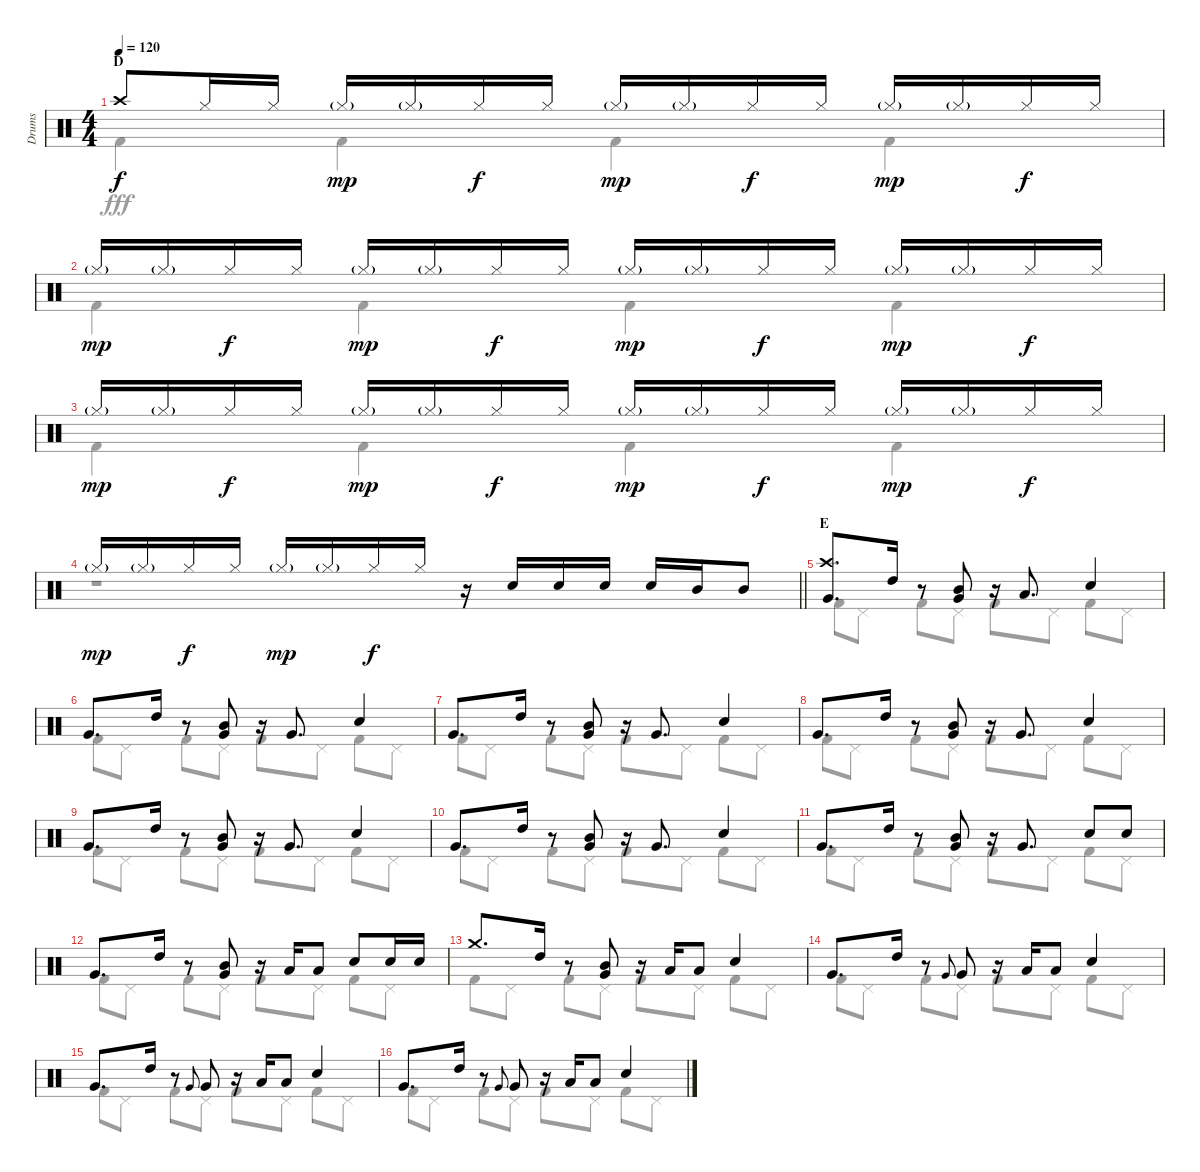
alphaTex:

\track ("Drums" "Drums") {instrument percussion}
\staff {score}
\articulation defaults
\voice
\ts (4 4)
\section ("" "D")
\tempo 120
\clef neutral
\ks c "Crash high (hit)".8{dy f} "Hi-Hat (closed)".16 "Hi-Hat (closed)".16 "Hi-Hat (closed)"{g}.16{dy mp} "Hi-Hat (closed)"{g}.16 "Hi-Hat (closed)".16{dy f} "Hi-Hat (closed)".16 "Hi-Hat (closed)"{g}.16{dy mp} "Hi-Hat (closed)"{g}.16 "Hi-Hat (closed)".16{dy f} "Hi-Hat (closed)".16 "Hi-Hat (closed)"{g}.16{dy mp} "Hi-Hat (closed)"{g}.16 "Hi-Hat (closed)".16{dy f} "Hi-Hat (closed)".16
|
"Hi-Hat (closed)"{g}.16{dy mp} "Hi-Hat (closed)"{g}.16 "Hi-Hat (closed)".16{dy f} "Hi-Hat (closed)".16 "Hi-Hat (closed)"{g}.16{dy mp} "Hi-Hat (closed)"{g}.16 "Hi-Hat (closed)".16{dy f} "Hi-Hat (closed)".16 "Hi-Hat (closed)"{g}.16{dy mp} "Hi-Hat (closed)"{g}.16 "Hi-Hat (closed)".16{dy f} "Hi-Hat (closed)".16 "Hi-Hat (closed)"{g}.16{dy mp} "Hi-Hat (closed)"{g}.16 "Hi-Hat (closed)".16{dy f} "Hi-Hat (closed)".16 |
"Hi-Hat (closed)"{g}.16{dy mp} "Hi-Hat (closed)"{g}.16 "Hi-Hat (closed)".16{dy f} "Hi-Hat (closed)".16 "Hi-Hat (closed)"{g}.16{dy mp} "Hi-Hat (closed)"{g}.16 "Hi-Hat (closed)".16{dy f} "Hi-Hat (closed)".16 "Hi-Hat (closed)"{g}.16{dy mp} "Hi-Hat (closed)"{g}.16 "Hi-Hat (closed)".16{dy f} "Hi-Hat (closed)".16 "Hi-Hat (closed)"{g}.16{dy mp} "Hi-Hat (closed)"{g}.16 "Hi-Hat (closed)".16{dy f} "Hi-Hat (closed)".16 |
\barLineRight lightlight "Hi-Hat (closed)"{g}.16{dy mp} "Hi-Hat (closed)"{g}.16 "Hi-Hat (closed)".16{dy f} "Hi-Hat (closed)".16 "Hi-Hat (closed)"{g}.16{dy mp} "Hi-Hat (closed)"{g}.16 "Hi-Hat (closed)".16{dy f} "Hi-Hat (closed)".16
r.16 "Snare (hit) 2".16 "Snare (hit) 2".16 "Snare (hit) 2".16 "Snare (hit) 2".16 "Mid Tom (hit)".16 "Mid Tom (hit)".8 |
\section ("" "E")
("Crash high (hit)" "Very Low Tom (hit)").8{d} "High Tom (hit)".16 r.8 ("Mid Tom (hit)" "Very Low Tom (hit)").8 r.16 "Low Tom (hit)".8{d} "Snare (hit) 2".4 |
"Very Low Tom (hit)".8{d} "High Tom (hit)".16 r.8 ("Mid Tom (hit)" "Very Low Tom (hit)").8 r.16 "Very Low Tom (hit)".8{d} "Snare (hit) 2".4 |
"Very Low Tom (hit)".8{d} "High Tom (hit)".16 r.8 ("Mid Tom (hit)" "Very Low Tom (hit)").8 r.16 "Very Low Tom (hit)".8{d} "Snare (hit) 2".4 |
"Very Low Tom (hit)".8{d} "High Tom (hit)".16 r.8 ("Mid Tom (hit)" "Very Low Tom (hit)").8 r.16 "Very Low Tom (hit)".8{d} "Snare (hit) 2".4 |
"Very Low Tom (hit)".8{d} "High Tom (hit)".16 r.8 ("Mid Tom (hit)" "Very Low Tom (hit)").8 r.16 "Very Low Tom (hit)".8{d} "Snare (hit) 2".4 |
"Very Low Tom (hit)".8{d} "High Tom (hit)".16 r.8 ("Mid Tom (hit)" "Very Low Tom (hit)").8 r.16 "Very Low Tom (hit)".8{d} "Snare (hit) 2".4 |
"Very Low Tom (hit)".8{d} "High Tom (hit)".16 r.8 ("Mid Tom (hit)" "Very Low Tom (hit)").8 r.16 "Very Low Tom (hit)".8{d} "Snare (hit) 2".8 "Snare (hit) 2".8 |
"Very Low Tom (hit)".8{d} "High Tom (hit)".16 r.8 ("Mid Tom (hit)" "Very Low Tom (hit)").8 r.16 "Low Tom (hit)".16 "Low Tom (hit)".8 "Snare (hit) 2".8 "Snare (hit) 2".16 "Snare (hit) 2".16 |
"Crash medium (hit)".8{d} "High Tom (hit)".16 r.8 ("Mid Tom (hit)" "Very Low Tom (hit)").8 r.16 "Low Tom (hit)".16 "Low Tom (hit)".8 "Snare (hit) 2".4 |
"Very Low Tom (hit)".8{d} "High Tom (hit)".16 r.8 "Very Low Tom (hit)".8{gr onbeat} "Very Low Tom (hit)".8 r.16 "Low Tom (hit)".16 "Low Tom (hit)".8 "Snare (hit) 2".4 |
"Very Low Tom (hit)".8{d} "High Tom (hit)".16 r.8 "Very Low Tom (hit)".8{gr onbeat} "Very Low Tom (hit)".8 r.16 "Low Tom (hit)".16 "Low Tom (hit)".8 "Snare (hit) 2".4 |
"Very Low Tom (hit)".8{d} "High Tom (hit)".16 r.8 "Very Low Tom (hit)".8{gr onbeat} "Very Low Tom (hit)".8 r.16 "Low Tom (hit)".16 "Low Tom (hit)".8 "Snare (hit) 2".4
\voice
\clef neutral
\ottava regular
\simile none
\ks c "Kick (hit) 2".4{dy fff} "Kick (hit) 2".4 "Kick (hit) 2".4 "Kick (hit) 2".4
|
"Kick (hit) 2".4 "Kick (hit) 2".4 "Kick (hit) 2".4 "Kick (hit) 2".4 |
"Kick (hit) 2".4 "Kick (hit) 2".4 "Kick (hit) 2".4 "Kick (hit) 2".4 |
\barLineRight lightlight
r.1 |
"Kick (hit) 2".8 "Pedal Hi-Hat (hit)".8 "Kick (hit) 2".8 "Pedal Hi-Hat (hit)".8 "Kick (hit) 2".8 "Pedal Hi-Hat (hit)".8 "Kick (hit) 2".8 "Pedal Hi-Hat (hit)".8 |
"Kick (hit) 2".8 "Pedal Hi-Hat (hit)".8 "Kick (hit) 2".8 "Pedal Hi-Hat (hit)".8 "Kick (hit) 2".8 "Pedal Hi-Hat (hit)".8 "Kick (hit) 2".8 "Pedal Hi-Hat (hit)".8 |
"Kick (hit) 2".8 "Pedal Hi-Hat (hit)".8 "Kick (hit) 2".8 "Pedal Hi-Hat (hit)".8 "Kick (hit) 2".8 "Pedal Hi-Hat (hit)".8 "Kick (hit) 2".8 "Pedal Hi-Hat (hit)".8 |
"Kick (hit) 2".8 "Pedal Hi-Hat (hit)".8 "Kick (hit) 2".8 "Pedal Hi-Hat (hit)".8 "Kick (hit) 2".8 "Pedal Hi-Hat (hit)".8 "Kick (hit) 2".8 "Pedal Hi-Hat (hit)".8 |
"Kick (hit) 2".8 "Pedal Hi-Hat (hit)".8 "Kick (hit) 2".8 "Pedal Hi-Hat (hit)".8 "Kick (hit) 2".8 "Pedal Hi-Hat (hit)".8 "Kick (hit) 2".8 "Pedal Hi-Hat (hit)".8 |
"Kick (hit) 2".8 "Pedal Hi-Hat (hit)".8 "Kick (hit) 2".8 "Pedal Hi-Hat (hit)".8 "Kick (hit) 2".8 "Pedal Hi-Hat (hit)".8 "Kick (hit) 2".8 "Pedal Hi-Hat (hit)".8 |
"Kick (hit) 2".8 "Pedal Hi-Hat (hit)".8 "Kick (hit) 2".8 "Pedal Hi-Hat (hit)".8 "Kick (hit) 2".8 "Pedal Hi-Hat (hit)".8 "Kick (hit) 2".8 "Pedal Hi-Hat (hit)".8 |
"Kick (hit) 2".8 "Pedal Hi-Hat (hit)".8 "Kick (hit) 2".8 "Pedal Hi-Hat (hit)".8 "Kick (hit) 2".8 "Pedal Hi-Hat (hit)".8 "Kick (hit) 2".8 "Pedal Hi-Hat (hit)".8 |
"Kick (hit) 2".8 "Pedal Hi-Hat (hit)".8 "Kick (hit) 2".8 "Pedal Hi-Hat (hit)".8 "Kick (hit) 2".8 "Pedal Hi-Hat (hit)".8 "Kick (hit) 2".8 "Pedal Hi-Hat (hit)".8 |
"Kick (hit) 2".8 "Pedal Hi-Hat (hit)".8 "Kick (hit) 2".8 "Pedal Hi-Hat (hit)".8 "Kick (hit) 2".8 "Pedal Hi-Hat (hit)".8 "Kick (hit) 2".8 "Pedal Hi-Hat (hit)".8 |
"Kick (hit) 2".8 "Pedal Hi-Hat (hit)".8 "Kick (hit) 2".8 "Pedal Hi-Hat (hit)".8 "Kick (hit) 2".8 "Pedal Hi-Hat (hit)".8 "Kick (hit) 2".8 "Pedal Hi-Hat (hit)".8 |
"Kick (hit) 2".8 "Pedal Hi-Hat (hit)".8 "Kick (hit) 2".8 "Pedal Hi-Hat (hit)".8 "Kick (hit) 2".8 "Pedal Hi-Hat (hit)".8 "Kick (hit) 2".8 "Pedal Hi-Hat (hit)".8
